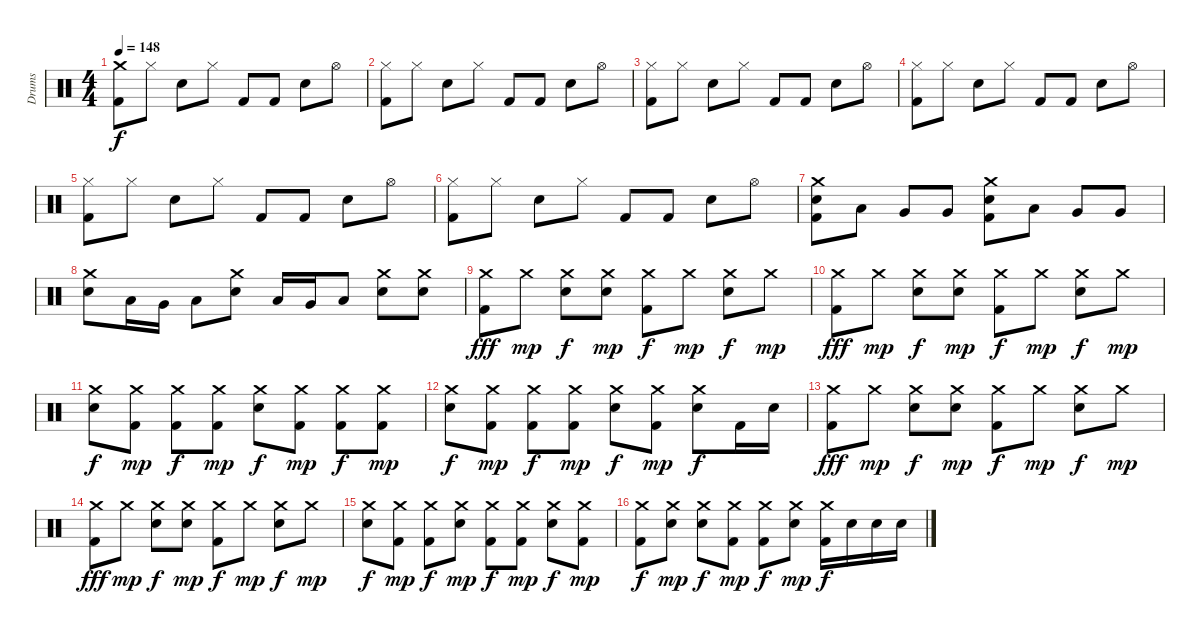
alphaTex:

\track ("Drums" "Drums") {instrument percussion}
\staff {score}
\articulation defaults
\ts (4 4)
\tempo 148
\clef neutral
\ks c
("Crash medium (hit)" "Kick (hit) 2").8{dy f} "Hi-Hat (closed)".8 "Snare (hit) 2".8 "Hi-Hat (closed)".8 "Kick (hit) 2".8 "Kick (hit) 2".8 "Snare (hit) 2".8 "Hi-Hat (open)".8 |
("Hi-Hat (closed)" "Kick (hit) 2").8 "Hi-Hat (closed)".8 "Snare (hit) 2".8 "Hi-Hat (closed)".8 "Kick (hit) 2".8 "Kick (hit) 2".8 "Snare (hit) 2".8 "Hi-Hat (open)".8 |
("Hi-Hat (closed)" "Kick (hit) 2").8 "Hi-Hat (closed)".8 "Snare (hit) 2".8 "Hi-Hat (closed)".8 "Kick (hit) 2".8 "Kick (hit) 2".8 "Snare (hit) 2".8 "Hi-Hat (open)".8 |
("Hi-Hat (closed)" "Kick (hit) 2").8 "Hi-Hat (closed)".8 "Snare (hit) 2".8 "Hi-Hat (closed)".8 "Kick (hit) 2".8 "Kick (hit) 2".8 "Snare (hit) 2".8 "Hi-Hat (open)".8 |
("Hi-Hat (closed)" "Kick (hit) 2").8 "Hi-Hat (closed)".8 "Snare (hit) 2".8 "Hi-Hat (closed)".8 "Kick (hit) 2".8 "Kick (hit) 2".8 "Snare (hit) 2".8 "Hi-Hat (open)".8 |
("Hi-Hat (closed)" "Kick (hit) 2").8 "Hi-Hat (closed)".8 "Snare (hit) 2".8 "Hi-Hat (closed)".8 "Kick (hit) 2".8 "Kick (hit) 2".8 "Snare (hit) 2".8 "Hi-Hat (open)".8 |
("Crash medium (hit)" "Snare (hit) 2" "Kick (hit) 2").8 "Low Tom (hit)".8 "Very Low Tom (hit)".8 "Very Low Tom (hit)".8 ("Crash medium (hit)" "Snare (hit) 2" "Kick (hit) 2").8 "Low Tom (hit)".8 "Very Low Tom (hit)".8 "Very Low Tom (hit)".8 |
("Crash medium (hit)" "Snare (hit) 2").8 "Low Tom (hit)".16 "Very Low Tom (hit)".16 "Low Floor Tom (hit)".8 ("Crash medium (hit)" "Snare (hit) 2").8 "Low Tom (hit)".16 "Very Low Tom (hit)".16 "Low Floor Tom (hit)".8 ("Crash medium (hit)" "Snare (hit) 2").8 ("Crash medium (hit)" "Snare (hit) 2").8 |
("Crash medium (hit)" "Kick (hit) 2").8{dy fff} "Crash medium (hit)".8{dy mp} ("Crash medium (hit)" "Snare (hit) 2").8{dy f} ("Crash medium (hit)" "Snare (hit) 2").8{dy mp} ("Crash medium (hit)" "Kick (hit) 2").8{dy f} "Crash medium (hit)".8{dy mp} ("Crash medium (hit)" "Snare (hit) 2").8{dy f} "Crash medium (hit)".8{dy mp} |
("Crash medium (hit)" "Kick (hit) 2").8{dy fff} "Crash medium (hit)".8{dy mp} ("Crash medium (hit)" "Snare (hit) 2").8{dy f} ("Crash medium (hit)" "Snare (hit) 2").8{dy mp} ("Crash medium (hit)" "Kick (hit) 2").8{dy f} "Crash medium (hit)".8{dy mp} ("Crash medium (hit)" "Snare (hit) 2").8{dy f} "Crash medium (hit)".8{dy mp} |
("Crash medium (hit)" "Snare (hit) 2").8{dy f} ("Crash medium (hit)" "Kick (hit) 2").8{dy mp} ("Crash medium (hit)" "Kick (hit) 2").8{dy f} ("Crash medium (hit)" "Kick (hit) 2").8{dy mp} ("Crash medium (hit)" "Snare (hit) 2").8{dy f} ("Crash medium (hit)" "Kick (hit) 2").8{dy mp} ("Crash medium (hit)" "Kick (hit) 2").8{dy f} ("Crash medium (hit)" "Kick (hit) 2").8{dy mp} |
("Crash medium (hit)" "Snare (hit) 2").8{dy f} ("Crash medium (hit)" "Kick (hit) 2").8{dy mp} ("Crash medium (hit)" "Kick (hit) 2").8{dy f} ("Crash medium (hit)" "Kick (hit) 2").8{dy mp} ("Crash medium (hit)" "Snare (hit) 2").8{dy f} ("Crash medium (hit)" "Kick (hit) 2").8{dy mp} ("Crash medium (hit)" "Snare (hit) 2").8{dy f} "Kick (hit) 2".16 "Snare (hit) 2".16 |
("Crash medium (hit)" "Kick (hit) 2").8{dy fff} "Crash medium (hit)".8{dy mp} ("Crash medium (hit)" "Snare (hit) 2").8{dy f} ("Crash medium (hit)" "Snare (hit) 2").8{dy mp} ("Crash medium (hit)" "Kick (hit) 2").8{dy f} "Crash medium (hit)".8{dy mp} ("Crash medium (hit)" "Snare (hit) 2").8{dy f} "Crash medium (hit)".8{dy mp} |
("Crash medium (hit)" "Kick (hit) 2").8{dy fff} "Crash medium (hit)".8{dy mp} ("Crash medium (hit)" "Snare (hit) 2").8{dy f} ("Crash medium (hit)" "Snare (hit) 2").8{dy mp} ("Crash medium (hit)" "Kick (hit) 2").8{dy f} "Crash medium (hit)".8{dy mp} ("Crash medium (hit)" "Snare (hit) 2").8{dy f} "Crash medium (hit)".8{dy mp} |
("Crash medium (hit)" "Snare (hit) 2").8{dy f} ("Crash medium (hit)" "Kick (hit) 2").8{dy mp} ("Crash medium (hit)" "Kick (hit) 2").8{dy f} ("Crash medium (hit)" "Snare (hit) 2").8{dy mp} ("Crash medium (hit)" "Kick (hit) 2").8{dy f} ("Crash medium (hit)" "Kick (hit) 2").8{dy mp} ("Crash medium (hit)" "Snare (hit) 2").8{dy f} ("Crash medium (hit)" "Kick (hit) 2").8{dy mp} |
("Crash medium (hit)" "Kick (hit) 2").8{dy f} ("Crash medium (hit)" "Snare (hit) 2").8{dy mp} ("Crash medium (hit)" "Snare (hit) 2").8{dy f} ("Crash medium (hit)" "Kick (hit) 2").8{dy mp} ("Crash medium (hit)" "Kick (hit) 2").8{dy f} ("Crash medium (hit)" "Snare (hit) 2").8{dy mp} ("Crash medium (hit)" "Kick (hit) 2").16{dy f} "Snare (hit) 2".16 "Snare (hit) 2".16 "Snare (hit) 2".16
